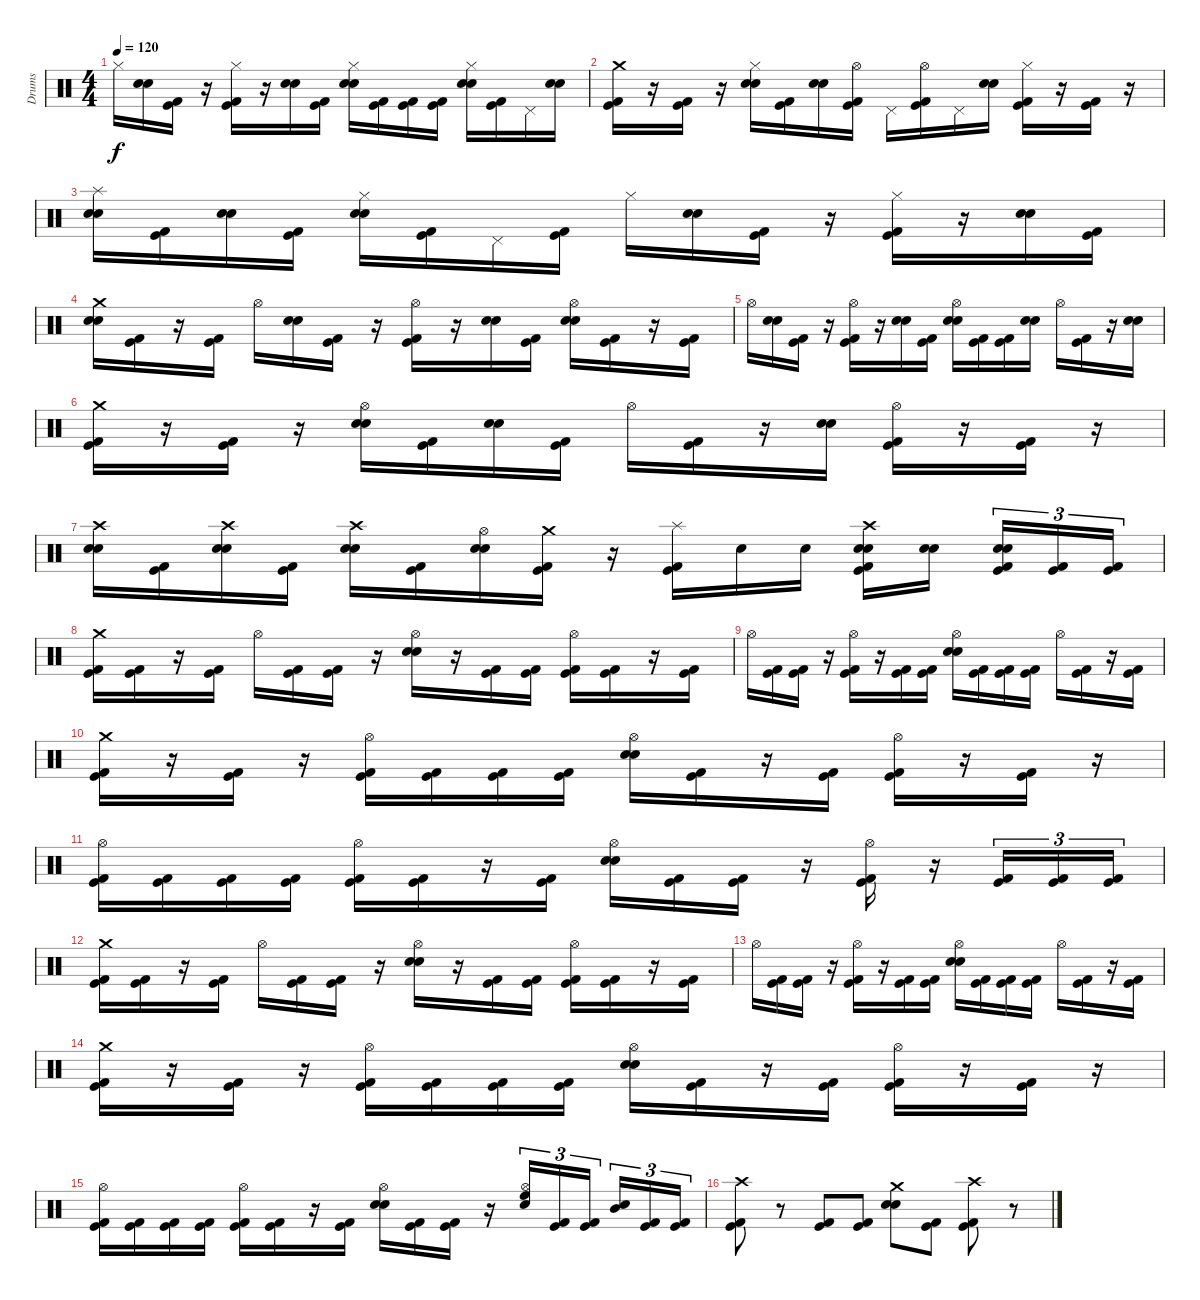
\track ("Drums" "Drums") {instrument percussion}
\staff {score}
\articulation defaults
\ts (4 4)
\tempo 120
\clef neutral
\ks c "Hi-Hat (closed)".16{dy f}
("Electric Snare (hit)" "Electric Snare (hit)").16 ("Kick (hit) 2" "Kick (hit)").16 r.16 ("Hi-Hat (closed)" "Kick (hit) 2" "Kick (hit)").16 r.16 ("Electric Snare (hit)" "Electric Snare (hit)").16 ("Kick (hit) 2" "Kick (hit)").16 ("Hi-Hat (closed)" "Electric Snare (hit)" "Electric Snare (hit)").16 ("Kick (hit) 2" "Kick (hit)").16 ("Kick (hit) 2" "Kick (hit)").16 ("Kick (hit) 2" "Kick (hit)").16 ("Hi-Hat (closed)" "Electric Snare (hit)" "Electric Snare (hit)").16 ("Kick (hit) 2" "Kick (hit)").16 "Pedal Hi-Hat (hit)".16 ("Electric Snare (hit)" "Electric Snare (hit)").16 |
("Crash medium (hit)" "Kick (hit) 2" "Kick (hit)").16 r.16 ("Kick (hit) 2" "Kick (hit)").16 r.16 ("Hi-Hat (closed)" "Electric Snare (hit)" "Electric Snare (hit)").16 ("Kick (hit) 2" "Kick (hit)").16 ("Electric Snare (hit)" "Electric Snare (hit)").16 ("Hi-Hat (open)" "Kick (hit) 2" "Kick (hit)").16 "Pedal Hi-Hat (hit)".16 ("Hi-Hat (open)" "Kick (hit) 2" "Kick (hit)").16 "Pedal Hi-Hat (hit)".16 ("Electric Snare (hit)" "Electric Snare (hit)").16 ("Hi-Hat (closed)" "Kick (hit) 2" "Kick (hit)").16 r.16 ("Kick (hit) 2" "Kick (hit)").16 r.16 |
("Splash (hit)" "Electric Snare (hit)" "Electric Snare (hit)").16 ("Kick (hit) 2" "Kick (hit)").16 ("Electric Snare (hit)" "Electric Snare (hit)").16 ("Kick (hit) 2" "Kick (hit)").16 ("Hi-Hat (closed)" "Electric Snare (hit)" "Electric Snare (hit)").16 ("Kick (hit) 2" "Kick (hit)").16 "Pedal Hi-Hat (hit)".16 ("Kick (hit) 2" "Kick (hit)").16 "Hi-Hat (closed)".16 ("Electric Snare (hit)" "Electric Snare (hit)").16 ("Kick (hit) 2" "Kick (hit)").16 r.16 ("Hi-Hat (closed)" "Kick (hit) 2" "Kick (hit)").16 r.16 ("Electric Snare (hit)" "Electric Snare (hit)").16 ("Kick (hit) 2" "Kick (hit)").16 |
("Crash medium (hit)" "Electric Snare (hit)" "Electric Snare (hit)").16 ("Kick (hit) 2" "Kick (hit)").16 r.16 ("Kick (hit) 2" "Kick (hit)").16 "Hi-Hat (open)".16 ("Electric Snare (hit)" "Electric Snare (hit)").16 ("Kick (hit) 2" "Kick (hit)").16 r.16 ("Hi-Hat (open)" "Kick (hit) 2" "Kick (hit)").16 r.16 ("Electric Snare (hit)" "Electric Snare (hit)").16 ("Kick (hit) 2" "Kick (hit)").16 ("Hi-Hat (open)" "Electric Snare (hit)" "Electric Snare (hit)").16 ("Kick (hit) 2" "Kick (hit)").16 r.16 ("Kick (hit) 2" "Kick (hit)").16 |
"Hi-Hat (open)".16 ("Electric Snare (hit)" "Electric Snare (hit)").16 ("Kick (hit) 2" "Kick (hit)").16 r.16 ("Hi-Hat (open)" "Kick (hit) 2" "Kick (hit)").16 r.16 ("Electric Snare (hit)" "Electric Snare (hit)").16 ("Kick (hit) 2" "Kick (hit)").16 ("Hi-Hat (open)" "Electric Snare (hit)" "Electric Snare (hit)").16 ("Kick (hit) 2" "Kick (hit)").16 ("Kick (hit) 2" "Kick (hit)").16 ("Electric Snare (hit)" "Electric Snare (hit)").16 "Hi-Hat (open)".16 ("Kick (hit) 2" "Kick (hit)").16 r.16 ("Electric Snare (hit)" "Electric Snare (hit)").16 |
("Crash medium (hit)" "Kick (hit) 2" "Kick (hit)").16 r.16 ("Kick (hit) 2" "Kick (hit)").16 r.16 ("Hi-Hat (open)" "Electric Snare (hit)" "Electric Snare (hit)").16 ("Kick (hit) 2" "Kick (hit)").16 ("Electric Snare (hit)" "Electric Snare (hit)").16 ("Kick (hit) 2" "Kick (hit)").16 "Hi-Hat (open)".16 ("Kick (hit) 2" "Kick (hit)").16 r.16 ("Electric Snare (hit)" "Electric Snare (hit)").16 ("Hi-Hat (open)" "Kick (hit) 2" "Kick (hit)").16 r.16 ("Kick (hit) 2" "Kick (hit)").16 r.16 |
("Crash high (hit)" "Electric Snare (hit)" "Electric Snare (hit)").16 ("Kick (hit) 2" "Kick (hit)").16 ("Crash high (hit)" "Electric Snare (hit)" "Electric Snare (hit)").16 ("Kick (hit) 2" "Kick (hit)").16 ("Crash high (hit)" "Electric Snare (hit)" "Electric Snare (hit)").16 ("Kick (hit) 2" "Kick (hit)").16 ("Hi-Hat (open)" "Electric Snare (hit)" "Electric Snare (hit)").16 ("Crash medium (hit)" "Kick (hit) 2" "Kick (hit)").16 r.16 ("Splash (hit)" "Kick (hit) 2" "Kick (hit)").16 "Electric Snare (hit)".16 "Electric Snare (hit)".16 ("Crash high (hit)" "Electric Snare (hit)" "Electric Snare (hit)" "Kick (hit) 2" "Kick (hit)").16 ("Electric Snare (hit)" "Electric Snare (hit)").16{beam splitsecondary} ("Electric Snare (hit)" "Electric Snare (hit)" "Kick (hit) 2" "Kick (hit)").16{tu (3 2)} ("Kick (hit) 2" "Kick (hit)").16{tu (3 2)} ("Kick (hit) 2" "Kick (hit)").16{tu (3 2)} |
("Crash medium (hit)" "Kick (hit) 2" "Kick (hit)").16 ("Kick (hit) 2" "Kick (hit)").16 r.16 ("Kick (hit) 2" "Kick (hit)").16 "Hi-Hat (open)".16 ("Kick (hit) 2" "Kick (hit)").16 ("Kick (hit) 2" "Kick (hit)").16 r.16 ("Hi-Hat (open)" "Electric Snare (hit)" "Electric Snare (hit)").16 r.16 ("Kick (hit) 2" "Kick (hit)").16 ("Kick (hit) 2" "Kick (hit)").16 ("Hi-Hat (open)" "Kick (hit) 2" "Kick (hit)").16 ("Kick (hit) 2" "Kick (hit)").16 r.16 ("Kick (hit) 2" "Kick (hit)").16 |
"Hi-Hat (open)".16 ("Kick (hit) 2" "Kick (hit)").16 ("Kick (hit) 2" "Kick (hit)").16 r.16 ("Hi-Hat (open)" "Kick (hit) 2" "Kick (hit)").16 r.16 ("Kick (hit) 2" "Kick (hit)").16 ("Kick (hit) 2" "Kick (hit)").16 ("Hi-Hat (open)" "Electric Snare (hit)" "Electric Snare (hit)").16 ("Kick (hit) 2" "Kick (hit)").16 ("Kick (hit) 2" "Kick (hit)").16 ("Kick (hit) 2" "Kick (hit)").16 "Hi-Hat (open)".16 ("Kick (hit) 2" "Kick (hit)").16 r.16 ("Kick (hit) 2" "Kick (hit)").16 |
("Crash medium (hit)" "Kick (hit) 2" "Kick (hit)").16 r.16 ("Kick (hit) 2" "Kick (hit)").16 r.16 ("Hi-Hat (open)" "Kick (hit) 2" "Kick (hit)").16 ("Kick (hit) 2" "Kick (hit)").16 ("Kick (hit) 2" "Kick (hit)").16 ("Kick (hit) 2" "Kick (hit)").16 ("Hi-Hat (open)" "Electric Snare (hit)" "Electric Snare (hit)").16 ("Kick (hit) 2" "Kick (hit)").16 r.16 ("Kick (hit) 2" "Kick (hit)").16 ("Hi-Hat (open)" "Kick (hit) 2" "Kick (hit)").16 r.16 ("Kick (hit) 2" "Kick (hit)").16 r.16 |
("Hi-Hat (open)" "Kick (hit) 2" "Kick (hit)").16 ("Kick (hit) 2" "Kick (hit)").16 ("Kick (hit) 2" "Kick (hit)").16 ("Kick (hit) 2" "Kick (hit)").16 ("Hi-Hat (open)" "Kick (hit) 2" "Kick (hit)").16 ("Kick (hit) 2" "Kick (hit)").16 r.16 ("Kick (hit) 2" "Kick (hit)").16 ("Hi-Hat (open)" "Electric Snare (hit)" "Electric Snare (hit)").16 ("Kick (hit) 2" "Kick (hit)").16 ("Kick (hit) 2" "Kick (hit)").16 r.16 ("Hi-Hat (open)" "Kick (hit) 2" "Kick (hit)").16 r.16 ("Kick (hit) 2" "Kick (hit)").16{tu (3 2)} ("Kick (hit) 2" "Kick (hit)").16{tu (3 2)} ("Kick (hit) 2" "Kick (hit)").16{tu (3 2)} |
("Crash medium (hit)" "Kick (hit) 2" "Kick (hit)").16 ("Kick (hit) 2" "Kick (hit)").16 r.16 ("Kick (hit) 2" "Kick (hit)").16 "Hi-Hat (open)".16 ("Kick (hit) 2" "Kick (hit)").16 ("Kick (hit) 2" "Kick (hit)").16 r.16 ("Hi-Hat (open)" "Electric Snare (hit)" "Electric Snare (hit)").16 r.16 ("Kick (hit) 2" "Kick (hit)").16 ("Kick (hit) 2" "Kick (hit)").16 ("Hi-Hat (open)" "Kick (hit) 2" "Kick (hit)").16 ("Kick (hit) 2" "Kick (hit)").16 r.16 ("Kick (hit) 2" "Kick (hit)").16 |
"Hi-Hat (open)".16 ("Kick (hit) 2" "Kick (hit)").16 ("Kick (hit) 2" "Kick (hit)").16 r.16 ("Hi-Hat (open)" "Kick (hit) 2" "Kick (hit)").16 r.16 ("Kick (hit) 2" "Kick (hit)").16 ("Kick (hit) 2" "Kick (hit)").16 ("Hi-Hat (open)" "Electric Snare (hit)" "Electric Snare (hit)").16 ("Kick (hit) 2" "Kick (hit)").16 ("Kick (hit) 2" "Kick (hit)").16 ("Kick (hit) 2" "Kick (hit)").16 "Hi-Hat (open)".16 ("Kick (hit) 2" "Kick (hit)").16 r.16 ("Kick (hit) 2" "Kick (hit)").16 |
("Crash medium (hit)" "Kick (hit) 2" "Kick (hit)").16 r.16 ("Kick (hit) 2" "Kick (hit)").16 r.16 ("Hi-Hat (open)" "Kick (hit) 2" "Kick (hit)").16 ("Kick (hit) 2" "Kick (hit)").16 ("Kick (hit) 2" "Kick (hit)").16 ("Kick (hit) 2" "Kick (hit)").16 ("Hi-Hat (open)" "Electric Snare (hit)" "Electric Snare (hit)").16 ("Kick (hit) 2" "Kick (hit)").16 r.16 ("Kick (hit) 2" "Kick (hit)").16 ("Hi-Hat (open)" "Kick (hit) 2" "Kick (hit)").16 r.16 ("Kick (hit) 2" "Kick (hit)").16 r.16 |
("Hi-Hat (open)" "Kick (hit) 2" "Kick (hit)").16 ("Kick (hit) 2" "Kick (hit)").16 ("Kick (hit) 2" "Kick (hit)").16 ("Kick (hit) 2" "Kick (hit)").16 ("Hi-Hat (open)" "Kick (hit) 2" "Kick (hit)").16 ("Kick (hit) 2" "Kick (hit)").16 r.16 ("Kick (hit) 2" "Kick (hit)").16 ("Hi-Hat (open)" "Electric Snare (hit)" "Electric Snare (hit)").16 ("Kick (hit) 2" "Kick (hit)").16 ("Kick (hit) 2" "Kick (hit)").16 r.16 ("Hi-Hat (open)" "High Floor Tom (hit)" "Electric Snare (hit)").16{tu (3 2)} ("Kick (hit) 2" "Kick (hit)").16{tu (3 2)} ("Kick (hit) 2" "Kick (hit)").16{tu (3 2) beam splitsecondary} ("Mid Tom (hit)" "Electric Snare (hit)").16{tu (3 2)} ("Kick (hit) 2" "Kick (hit)").16{tu (3 2)} ("Kick (hit) 2" "Kick (hit)").16{tu (3 2)} |
("Crash high (hit)" "Kick (hit) 2" "Kick (hit)").8 r.8 ("Kick (hit) 2" "Kick (hit)").8 ("Kick (hit) 2" "Kick (hit)").8 ("Crash medium (hit)" "Electric Snare (hit)" "Electric Snare (hit)").8 ("Kick (hit) 2" "Kick (hit)").8 ("Crash high (hit)" "Kick (hit) 2" "Kick (hit)").8 r.8
